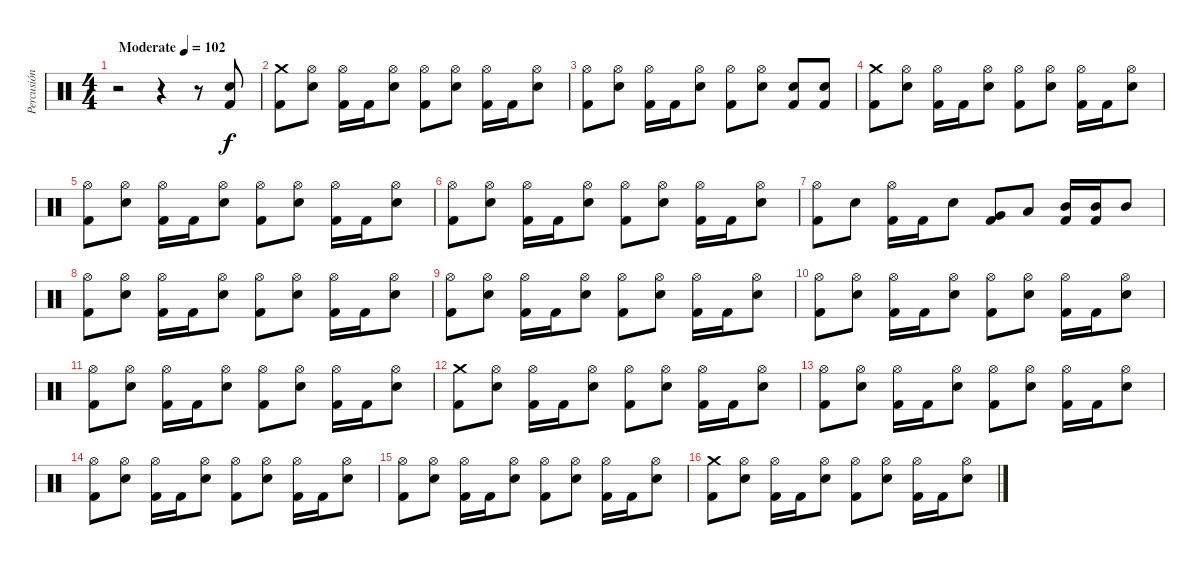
\track ("Percusión" "Percusión") {instrument percussion}
\staff {score}
\articulation defaults
\ts (4 4)
\tempo (102 "Moderate")
\clef neutral
\ks c
r.2{dy f} r.4 r.8 ("Kick (hit) 2" "Snare (hit) 2").8 |
("Kick (hit) 2" "Crash medium (hit)").8 ("Electric Snare (hit)" "Hi-Hat (open)").8 ("Kick (hit) 2" "Hi-Hat (open)").16 "Kick (hit) 2".16 ("Electric Snare (hit)" "Hi-Hat (open)").8 ("Kick (hit) 2" "Hi-Hat (open)").8 ("Electric Snare (hit)" "Hi-Hat (open)").8 ("Kick (hit) 2" "Hi-Hat (open)").16 "Kick (hit) 2".16 ("Electric Snare (hit)" "Hi-Hat (open)").8 |
("Kick (hit) 2" "Hi-Hat (open)").8 ("Electric Snare (hit)" "Hi-Hat (open)").8 ("Kick (hit) 2" "Hi-Hat (open)").16 "Kick (hit) 2".16 ("Electric Snare (hit)" "Hi-Hat (open)").8 ("Kick (hit) 2" "Hi-Hat (open)").8 ("Electric Snare (hit)" "Hi-Hat (open)").8 ("Kick (hit) 2" "Electric Snare (hit)").8 ("Kick (hit) 2" "Electric Snare (hit)").8 |
("Kick (hit) 2" "Crash medium (hit)").8 ("Electric Snare (hit)" "Hi-Hat (open)").8 ("Kick (hit) 2" "Hi-Hat (open)").16 "Kick (hit) 2".16 ("Electric Snare (hit)" "Hi-Hat (open)").8 ("Kick (hit) 2" "Hi-Hat (open)").8 ("Electric Snare (hit)" "Hi-Hat (open)").8 ("Kick (hit) 2" "Hi-Hat (open)").16 "Kick (hit) 2".16 ("Electric Snare (hit)" "Hi-Hat (open)").8 |
("Kick (hit) 2" "Hi-Hat (open)").8 ("Electric Snare (hit)" "Hi-Hat (open)").8 ("Kick (hit) 2" "Hi-Hat (open)").16 "Kick (hit) 2".16 ("Electric Snare (hit)" "Hi-Hat (open)").8 ("Kick (hit) 2" "Hi-Hat (open)").8 ("Electric Snare (hit)" "Hi-Hat (open)").8 ("Kick (hit) 2" "Hi-Hat (open)").16 "Kick (hit) 2".16 ("Electric Snare (hit)" "Hi-Hat (open)").8 |
("Kick (hit) 2" "Hi-Hat (open)").8 ("Electric Snare (hit)" "Hi-Hat (open)").8 ("Kick (hit) 2" "Hi-Hat (open)").16 "Kick (hit) 2".16 ("Electric Snare (hit)" "Hi-Hat (open)").8 ("Kick (hit) 2" "Hi-Hat (open)").8 ("Electric Snare (hit)" "Hi-Hat (open)").8 ("Kick (hit) 2" "Hi-Hat (open)").16 "Kick (hit) 2".16 ("Electric Snare (hit)" "Hi-Hat (open)").8 |
("Kick (hit) 2" "Hi-Hat (open)").8 "Snare (hit) 2".8 ("Kick (hit) 2" "Hi-Hat (open)").16 "Kick (hit) 2".16 "Snare (hit) 2".8 ("Kick (hit) 2" "Very Low Tom (hit)").8 "Low Tom (hit)".8 ("Kick (hit) 2" "Mid Tom (hit)").16 ("Kick (hit) 2" "Mid Tom (hit)").16 "Mid Tom (hit)".8 |
("Kick (hit) 2" "Hi-Hat (open)").8 ("Electric Snare (hit)" "Hi-Hat (open)").8 ("Kick (hit) 2" "Hi-Hat (open)").16 "Kick (hit) 2".16 ("Electric Snare (hit)" "Hi-Hat (open)").8 ("Kick (hit) 2" "Hi-Hat (open)").8 ("Electric Snare (hit)" "Hi-Hat (open)").8 ("Kick (hit) 2" "Hi-Hat (open)").16 "Kick (hit) 2".16 ("Electric Snare (hit)" "Hi-Hat (open)").8 |
("Kick (hit) 2" "Hi-Hat (open)").8 ("Electric Snare (hit)" "Hi-Hat (open)").8 ("Kick (hit) 2" "Hi-Hat (open)").16 "Kick (hit) 2".16 ("Electric Snare (hit)" "Hi-Hat (open)").8 ("Kick (hit) 2" "Hi-Hat (open)").8 ("Electric Snare (hit)" "Hi-Hat (open)").8 ("Kick (hit) 2" "Hi-Hat (open)").16 "Kick (hit) 2".16 ("Electric Snare (hit)" "Hi-Hat (open)").8 |
("Kick (hit) 2" "Hi-Hat (open)").8 ("Electric Snare (hit)" "Hi-Hat (open)").8 ("Kick (hit) 2" "Hi-Hat (open)").16 "Kick (hit) 2".16 ("Electric Snare (hit)" "Hi-Hat (open)").8 ("Kick (hit) 2" "Hi-Hat (open)").8 ("Electric Snare (hit)" "Hi-Hat (open)").8 ("Kick (hit) 2" "Hi-Hat (open)").16 "Kick (hit) 2".16 ("Electric Snare (hit)" "Hi-Hat (open)").8 |
("Kick (hit) 2" "Hi-Hat (open)").8 ("Electric Snare (hit)" "Hi-Hat (open)").8 ("Kick (hit) 2" "Hi-Hat (open)").16 "Kick (hit) 2".16 ("Electric Snare (hit)" "Hi-Hat (open)").8 ("Kick (hit) 2" "Hi-Hat (open)").8 ("Electric Snare (hit)" "Hi-Hat (open)").8 ("Kick (hit) 2" "Hi-Hat (open)").16 "Kick (hit) 2".16 ("Electric Snare (hit)" "Hi-Hat (open)").8 |
("Kick (hit) 2" "Crash medium (hit)").8 ("Electric Snare (hit)" "Hi-Hat (open)").8 ("Kick (hit) 2" "Hi-Hat (open)").16 "Kick (hit) 2".16 ("Electric Snare (hit)" "Hi-Hat (open)").8 ("Kick (hit) 2" "Hi-Hat (open)").8 ("Electric Snare (hit)" "Hi-Hat (open)").8 ("Kick (hit) 2" "Hi-Hat (open)").16 "Kick (hit) 2".16 ("Electric Snare (hit)" "Hi-Hat (open)").8 |
("Kick (hit) 2" "Hi-Hat (open)").8 ("Electric Snare (hit)" "Hi-Hat (open)").8 ("Kick (hit) 2" "Hi-Hat (open)").16 "Kick (hit) 2".16 ("Electric Snare (hit)" "Hi-Hat (open)").8 ("Kick (hit) 2" "Hi-Hat (open)").8 ("Electric Snare (hit)" "Hi-Hat (open)").8 ("Kick (hit) 2" "Hi-Hat (open)").16 "Kick (hit) 2".16 ("Electric Snare (hit)" "Hi-Hat (open)").8 |
("Kick (hit) 2" "Hi-Hat (open)").8 ("Electric Snare (hit)" "Hi-Hat (open)").8 ("Kick (hit) 2" "Hi-Hat (open)").16 "Kick (hit) 2".16 ("Electric Snare (hit)" "Hi-Hat (open)").8 ("Kick (hit) 2" "Hi-Hat (open)").8 ("Electric Snare (hit)" "Hi-Hat (open)").8 ("Kick (hit) 2" "Hi-Hat (open)").16 "Kick (hit) 2".16 ("Electric Snare (hit)" "Hi-Hat (open)").8 |
("Kick (hit) 2" "Hi-Hat (open)").8 ("Electric Snare (hit)" "Hi-Hat (open)").8 ("Kick (hit) 2" "Hi-Hat (open)").16 "Kick (hit) 2".16 ("Electric Snare (hit)" "Hi-Hat (open)").8 ("Kick (hit) 2" "Hi-Hat (open)").8 ("Electric Snare (hit)" "Hi-Hat (open)").8 ("Kick (hit) 2" "Hi-Hat (open)").16 "Kick (hit) 2".16 ("Electric Snare (hit)" "Hi-Hat (open)").8 |
("Kick (hit) 2" "Crash medium (hit)").8 ("Electric Snare (hit)" "Hi-Hat (open)").8 ("Kick (hit) 2" "Hi-Hat (open)").16 "Kick (hit) 2".16 ("Electric Snare (hit)" "Hi-Hat (open)").8 ("Kick (hit) 2" "Hi-Hat (open)").8 ("Electric Snare (hit)" "Hi-Hat (open)").8 ("Kick (hit) 2" "Hi-Hat (open)").16 "Kick (hit) 2".16 ("Electric Snare (hit)" "Hi-Hat (open)").8
